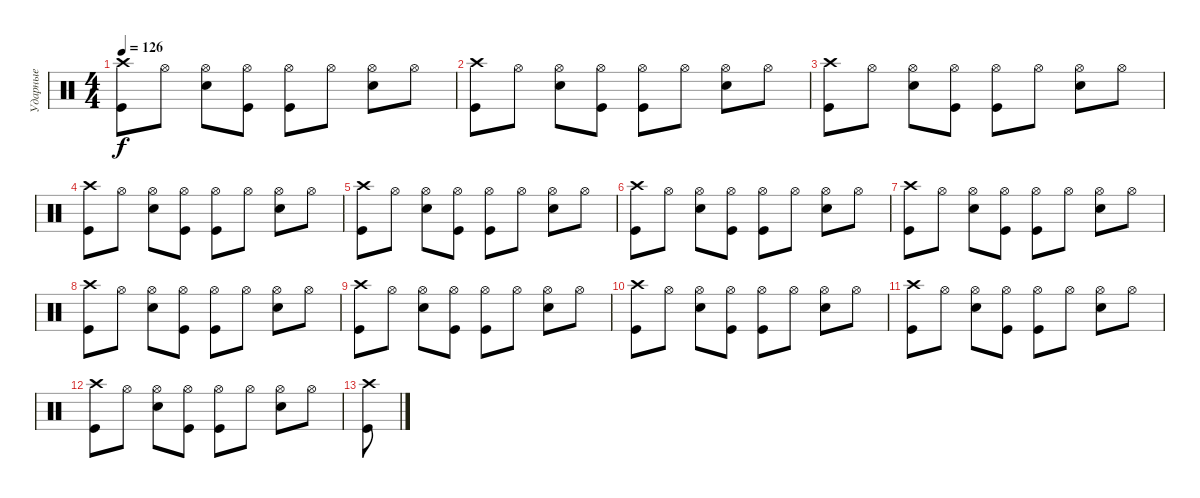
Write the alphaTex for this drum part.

\track ("Ударные" "Ударные") {instrument percussion}
\staff {score}
\articulation defaults
\ts (4 4)
\tempo 126
\clef neutral
\ks c
("Crash high (hit)" "Kick (hit)").8{dy f} "Hi-Hat (open)".8 ("Hi-Hat (open)" "Snare (hit) 2").8 ("Hi-Hat (open)" "Kick (hit)").8 ("Hi-Hat (open)" "Kick (hit)").8 "Hi-Hat (open)".8 ("Hi-Hat (open)" "Snare (hit) 2").8 "Hi-Hat (open)".8 |
("Crash high (hit)" "Kick (hit)").8 "Hi-Hat (open)".8 ("Hi-Hat (open)" "Snare (hit) 2").8 ("Hi-Hat (open)" "Kick (hit)").8 ("Hi-Hat (open)" "Kick (hit)").8 "Hi-Hat (open)".8 ("Hi-Hat (open)" "Snare (hit) 2").8 "Hi-Hat (open)".8 |
("Crash high (hit)" "Kick (hit)").8 "Hi-Hat (open)".8 ("Hi-Hat (open)" "Snare (hit) 2").8 ("Hi-Hat (open)" "Kick (hit)").8 ("Hi-Hat (open)" "Kick (hit)").8 "Hi-Hat (open)".8 ("Hi-Hat (open)" "Snare (hit) 2").8 "Hi-Hat (open)".8 |
("Crash high (hit)" "Kick (hit)").8 "Hi-Hat (open)".8 ("Hi-Hat (open)" "Snare (hit) 2").8 ("Hi-Hat (open)" "Kick (hit)").8 ("Hi-Hat (open)" "Kick (hit)").8 "Hi-Hat (open)".8 ("Hi-Hat (open)" "Snare (hit) 2").8 "Hi-Hat (open)".8 |
("Crash high (hit)" "Kick (hit)").8 "Hi-Hat (open)".8 ("Hi-Hat (open)" "Snare (hit) 2").8 ("Hi-Hat (open)" "Kick (hit)").8 ("Hi-Hat (open)" "Kick (hit)").8 "Hi-Hat (open)".8 ("Hi-Hat (open)" "Snare (hit) 2").8 "Hi-Hat (open)".8 |
("Crash high (hit)" "Kick (hit)").8 "Hi-Hat (open)".8 ("Hi-Hat (open)" "Snare (hit) 2").8 ("Hi-Hat (open)" "Kick (hit)").8 ("Hi-Hat (open)" "Kick (hit)").8 "Hi-Hat (open)".8 ("Hi-Hat (open)" "Snare (hit) 2").8 "Hi-Hat (open)".8 |
("Crash high (hit)" "Kick (hit)").8 "Hi-Hat (open)".8 ("Hi-Hat (open)" "Snare (hit) 2").8 ("Hi-Hat (open)" "Kick (hit)").8 ("Hi-Hat (open)" "Kick (hit)").8 "Hi-Hat (open)".8 ("Hi-Hat (open)" "Snare (hit) 2").8 "Hi-Hat (open)".8 |
("Crash high (hit)" "Kick (hit)").8 "Hi-Hat (open)".8 ("Hi-Hat (open)" "Snare (hit) 2").8 ("Hi-Hat (open)" "Kick (hit)").8 ("Hi-Hat (open)" "Kick (hit)").8 "Hi-Hat (open)".8 ("Hi-Hat (open)" "Snare (hit) 2").8 "Hi-Hat (open)".8 |
("Crash high (hit)" "Kick (hit)").8 "Hi-Hat (open)".8 ("Hi-Hat (open)" "Snare (hit) 2").8 ("Hi-Hat (open)" "Kick (hit)").8 ("Hi-Hat (open)" "Kick (hit)").8 "Hi-Hat (open)".8 ("Hi-Hat (open)" "Snare (hit) 2").8 "Hi-Hat (open)".8 |
("Crash high (hit)" "Kick (hit)").8 "Hi-Hat (open)".8 ("Hi-Hat (open)" "Snare (hit) 2").8 ("Hi-Hat (open)" "Kick (hit)").8 ("Hi-Hat (open)" "Kick (hit)").8 "Hi-Hat (open)".8 ("Hi-Hat (open)" "Snare (hit) 2").8 "Hi-Hat (open)".8 |
("Crash high (hit)" "Kick (hit)").8 "Hi-Hat (open)".8 ("Hi-Hat (open)" "Snare (hit) 2").8 ("Hi-Hat (open)" "Kick (hit)").8 ("Hi-Hat (open)" "Kick (hit)").8 "Hi-Hat (open)".8 ("Hi-Hat (open)" "Snare (hit) 2").8 "Hi-Hat (open)".8 |
("Crash high (hit)" "Kick (hit)").8 "Hi-Hat (open)".8 ("Hi-Hat (open)" "Snare (hit) 2").8 ("Hi-Hat (open)" "Kick (hit)").8 ("Hi-Hat (open)" "Kick (hit)").8 "Hi-Hat (open)".8 ("Hi-Hat (open)" "Snare (hit) 2").8 "Hi-Hat (open)".8 |
("Crash high (hit)" "Kick (hit)").8
